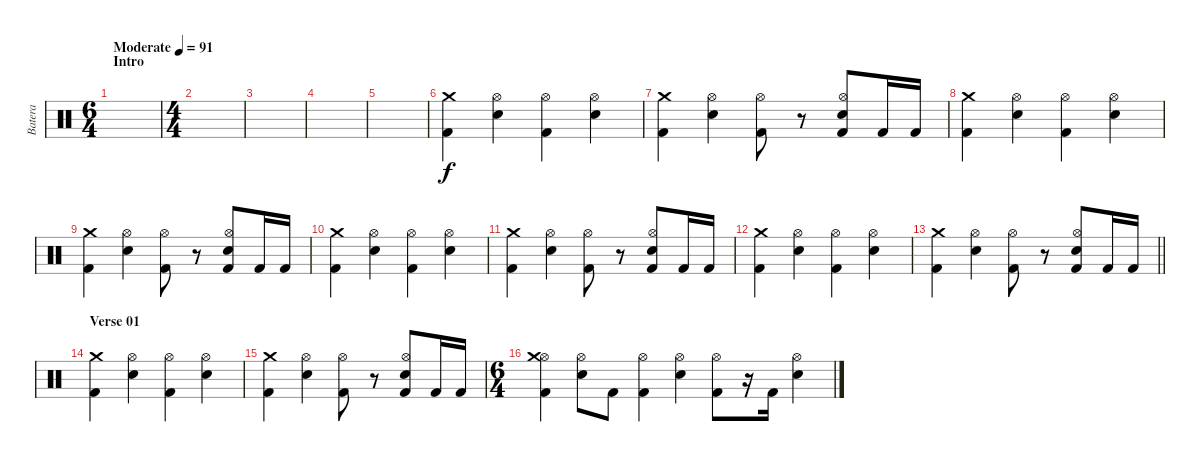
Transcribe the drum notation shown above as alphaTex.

\track ("Batera" "Batera") {instrument percussion}
\staff {score}
\articulation defaults
\ts (6 4)
\section ("" "Intro")
\tempo (91 "Moderate")
\clef neutral
\ks c
|
\ts (4 4)
|
|
|
|
("Crash medium (hit)" "Kick (hit) 2").4 ("Hi-Hat (open)" "Electric Snare (hit)").4 ("Hi-Hat (open)" "Kick (hit) 2").4 ("Hi-Hat (open)" "Electric Snare (hit)").4 |
("Crash medium (hit)" "Kick (hit) 2").4 ("Hi-Hat (open)" "Electric Snare (hit)").4 ("Hi-Hat (open)" "Kick (hit) 2").8 r.8 ("Hi-Hat (open)" "Electric Snare (hit)" "Kick (hit) 2").8 "Kick (hit) 2".16 "Kick (hit) 2".16 |
("Crash medium (hit)" "Kick (hit) 2").4 ("Hi-Hat (open)" "Electric Snare (hit)").4 ("Hi-Hat (open)" "Kick (hit) 2").4 ("Hi-Hat (open)" "Electric Snare (hit)").4 |
("Crash medium (hit)" "Kick (hit) 2").4 ("Hi-Hat (open)" "Electric Snare (hit)").4 ("Hi-Hat (open)" "Kick (hit) 2").8 r.8 ("Hi-Hat (open)" "Electric Snare (hit)" "Kick (hit) 2").8 "Kick (hit) 2".16 "Kick (hit) 2".16 |
("Crash medium (hit)" "Kick (hit) 2").4 ("Hi-Hat (open)" "Electric Snare (hit)").4 ("Hi-Hat (open)" "Kick (hit) 2").4 ("Hi-Hat (open)" "Electric Snare (hit)").4 |
("Crash medium (hit)" "Kick (hit) 2").4 ("Hi-Hat (open)" "Electric Snare (hit)").4 ("Hi-Hat (open)" "Kick (hit) 2").8 r.8 ("Hi-Hat (open)" "Electric Snare (hit)" "Kick (hit) 2").8 "Kick (hit) 2".16 "Kick (hit) 2".16 |
("Crash medium (hit)" "Kick (hit) 2").4 ("Hi-Hat (open)" "Electric Snare (hit)").4 ("Hi-Hat (open)" "Kick (hit) 2").4 ("Hi-Hat (open)" "Electric Snare (hit)").4 |
\barLineRight lightlight
("Crash medium (hit)" "Kick (hit) 2").4 ("Hi-Hat (open)" "Electric Snare (hit)").4 ("Hi-Hat (open)" "Kick (hit) 2").8 r.8 ("Hi-Hat (open)" "Electric Snare (hit)" "Kick (hit) 2").8 "Kick (hit) 2".16 "Kick (hit) 2".16 |
\section ("" "Verse 01")
("Crash medium (hit)" "Kick (hit) 2").4 ("Hi-Hat (open)" "Electric Snare (hit)").4 ("Hi-Hat (open)" "Kick (hit) 2").4 ("Hi-Hat (open)" "Electric Snare (hit)").4 |
("Crash medium (hit)" "Kick (hit) 2").4 ("Hi-Hat (open)" "Electric Snare (hit)").4 ("Hi-Hat (open)" "Kick (hit) 2").8 r.8 ("Hi-Hat (open)" "Electric Snare (hit)" "Kick (hit) 2").8 "Kick (hit) 2".16 "Kick (hit) 2".16 |
\ts (6 4)
("Hi-Hat (open)" "Crash medium (hit)" "Kick (hit) 2").4 ("Hi-Hat (open)" "Electric Snare (hit)").8 "Kick (hit) 2".8 ("Hi-Hat (open)" "Kick (hit) 2").4 ("Hi-Hat (open)" "Electric Snare (hit)").4 ("Hi-Hat (open)" "Kick (hit) 2").8 r.16 "Kick (hit) 2".16 ("Hi-Hat (open)" "Electric Snare (hit)").4
